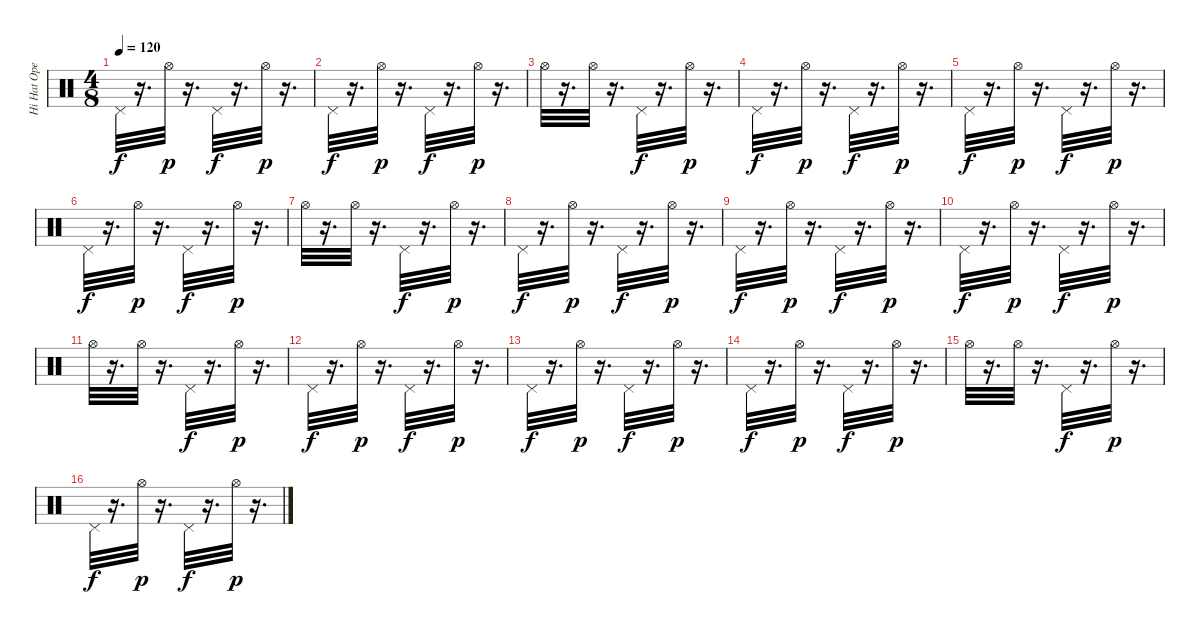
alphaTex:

\track ("Hi Hat Open" "Hi Hat Ope") {instrument percussion}
\staff {score}
\articulation defaults
\ts (4 8)
\tempo 120
\clef neutral
\ks c "Pedal Hi-Hat (hit)".32{dy f}
r.16{d} "Hi-Hat (open)".32{dy p} r.16{d} "Pedal Hi-Hat (hit)".32{dy f} r.16{d} "Hi-Hat (open)".32{dy p} r.16{d} |
"Pedal Hi-Hat (hit)".32{dy f} r.16{d} "Hi-Hat (open)".32{dy p} r.16{d} "Pedal Hi-Hat (hit)".32{dy f} r.16{d} "Hi-Hat (open)".32{dy p} r.16{d} |
"Hi-Hat (open)".32 r.16{d} "Hi-Hat (open)".32 r.16{d} "Pedal Hi-Hat (hit)".32{dy f} r.16{d} "Hi-Hat (open)".32{dy p} r.16{d} |
"Pedal Hi-Hat (hit)".32{dy f} r.16{d} "Hi-Hat (open)".32{dy p} r.16{d} "Pedal Hi-Hat (hit)".32{dy f} r.16{d} "Hi-Hat (open)".32{dy p} r.16{d} |
"Pedal Hi-Hat (hit)".32{dy f} r.16{d} "Hi-Hat (open)".32{dy p} r.16{d} "Pedal Hi-Hat (hit)".32{dy f} r.16{d} "Hi-Hat (open)".32{dy p} r.16{d} |
"Pedal Hi-Hat (hit)".32{dy f} r.16{d} "Hi-Hat (open)".32{dy p} r.16{d} "Pedal Hi-Hat (hit)".32{dy f} r.16{d} "Hi-Hat (open)".32{dy p} r.16{d} |
"Hi-Hat (open)".32 r.16{d} "Hi-Hat (open)".32 r.16{d} "Pedal Hi-Hat (hit)".32{dy f} r.16{d} "Hi-Hat (open)".32{dy p} r.16{d} |
"Pedal Hi-Hat (hit)".32{dy f} r.16{d} "Hi-Hat (open)".32{dy p} r.16{d} "Pedal Hi-Hat (hit)".32{dy f} r.16{d} "Hi-Hat (open)".32{dy p} r.16{d} |
"Pedal Hi-Hat (hit)".32{dy f} r.16{d} "Hi-Hat (open)".32{dy p} r.16{d} "Pedal Hi-Hat (hit)".32{dy f} r.16{d} "Hi-Hat (open)".32{dy p} r.16{d} |
"Pedal Hi-Hat (hit)".32{dy f} r.16{d} "Hi-Hat (open)".32{dy p} r.16{d} "Pedal Hi-Hat (hit)".32{dy f} r.16{d} "Hi-Hat (open)".32{dy p} r.16{d} |
"Hi-Hat (open)".32 r.16{d} "Hi-Hat (open)".32 r.16{d} "Pedal Hi-Hat (hit)".32{dy f} r.16{d} "Hi-Hat (open)".32{dy p} r.16{d} |
"Pedal Hi-Hat (hit)".32{dy f} r.16{d} "Hi-Hat (open)".32{dy p} r.16{d} "Pedal Hi-Hat (hit)".32{dy f} r.16{d} "Hi-Hat (open)".32{dy p} r.16{d} |
"Pedal Hi-Hat (hit)".32{dy f} r.16{d} "Hi-Hat (open)".32{dy p} r.16{d} "Pedal Hi-Hat (hit)".32{dy f} r.16{d} "Hi-Hat (open)".32{dy p} r.16{d} |
"Pedal Hi-Hat (hit)".32{dy f} r.16{d} "Hi-Hat (open)".32{dy p} r.16{d} "Pedal Hi-Hat (hit)".32{dy f} r.16{d} "Hi-Hat (open)".32{dy p} r.16{d} |
"Hi-Hat (open)".32 r.16{d} "Hi-Hat (open)".32 r.16{d} "Pedal Hi-Hat (hit)".32{dy f} r.16{d} "Hi-Hat (open)".32{dy p} r.16{d} |
"Pedal Hi-Hat (hit)".32{dy f} r.16{d} "Hi-Hat (open)".32{dy p} r.16{d} "Pedal Hi-Hat (hit)".32{dy f} r.16{d} "Hi-Hat (open)".32{dy p} r.16{d}
